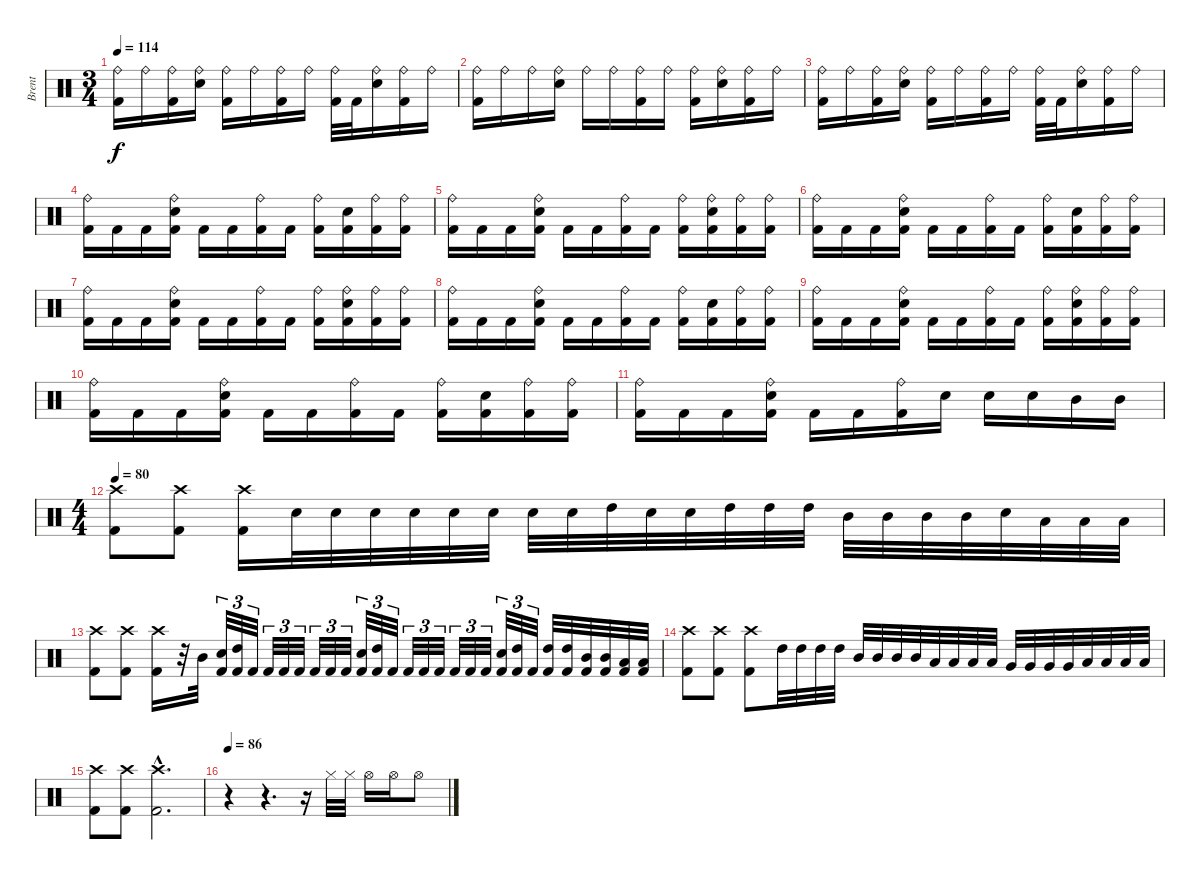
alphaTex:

\track ("Brent" "Brent") {instrument percussion}
\staff {score}
\articulation defaults
\ts (3 4)
\tempo 114
\clef neutral
\ks c
("Ride (bell)" "Kick (hit) 2").16{dy f} "Ride (bell)".16 ("Ride (bell)" "Kick (hit) 2").16 ("Ride (bell)" "Snare (hit) 2").16 ("Ride (bell)" "Kick (hit) 2").16 "Ride (bell)".16 ("Ride (bell)" "Kick (hit) 2").16 "Ride (bell)".16 ("Ride (bell)" "Kick (hit) 2").32 "Kick (hit) 2".32 ("Ride (bell)" "Snare (hit) 2").16 ("Ride (bell)" "Kick (hit) 2").16 "Ride (bell)".16 |
("Ride (bell)" "Kick (hit) 2").16 "Ride (bell)".16 "Ride (bell)".16 ("Ride (bell)" "Snare (hit) 2").16 "Ride (bell)".16 "Ride (bell)".16 ("Ride (bell)" "Kick (hit) 2").16 "Ride (bell)".16 ("Ride (bell)" "Kick (hit) 2").16 ("Ride (bell)" "Snare (hit) 2").16 ("Ride (bell)" "Kick (hit) 2").16 "Ride (bell)".16 |
("Ride (bell)" "Kick (hit) 2").16 "Ride (bell)".16 ("Ride (bell)" "Kick (hit) 2").16 ("Ride (bell)" "Snare (hit) 2").16 ("Ride (bell)" "Kick (hit) 2").16 "Ride (bell)".16 ("Ride (bell)" "Kick (hit) 2").16 "Ride (bell)".16 ("Ride (bell)" "Kick (hit) 2").32 "Kick (hit) 2".32 ("Ride (bell)" "Snare (hit) 2").16 ("Ride (bell)" "Kick (hit) 2").16 "Ride (bell)".16 |
("Ride (bell)" "Kick (hit) 2").16 "Kick (hit) 2".16 "Kick (hit) 2".16 ("Ride (bell)" "Snare (hit) 2" "Kick (hit) 2").16 "Kick (hit) 2".16 "Kick (hit) 2".16 ("Ride (bell)" "Kick (hit) 2").16 "Kick (hit) 2".16 ("Ride (bell)" "Kick (hit) 2").16 ("Snare (hit) 2" "Kick (hit) 2").16 ("Ride (bell)" "Kick (hit) 2").16 ("Ride (bell)" "Kick (hit) 2").16 |
("Ride (bell)" "Kick (hit) 2").16 "Kick (hit) 2".16 "Kick (hit) 2".16 ("Ride (bell)" "Snare (hit) 2" "Kick (hit) 2").16 "Kick (hit) 2".16 "Kick (hit) 2".16 ("Ride (bell)" "Kick (hit) 2").16 "Kick (hit) 2".16 ("Ride (bell)" "Kick (hit) 2").16 ("Ride (bell)" "Snare (hit) 2" "Kick (hit) 2").16 ("Ride (bell)" "Kick (hit) 2").16 ("Ride (bell)" "Kick (hit) 2").16 |
("Ride (bell)" "Kick (hit) 2").16 "Kick (hit) 2".16 "Kick (hit) 2".16 ("Ride (bell)" "Snare (hit) 2" "Kick (hit) 2").16 "Kick (hit) 2".16 "Kick (hit) 2".16 ("Ride (bell)" "Kick (hit) 2").16 "Kick (hit) 2".16 ("Ride (bell)" "Kick (hit) 2").16 ("Snare (hit) 2" "Kick (hit) 2").16 ("Ride (bell)" "Kick (hit) 2").16 ("Ride (bell)" "Kick (hit) 2").16 |
("Ride (bell)" "Kick (hit) 2").16 "Kick (hit) 2".16 "Kick (hit) 2".16 ("Ride (bell)" "Snare (hit) 2" "Kick (hit) 2").16 "Kick (hit) 2".16 "Kick (hit) 2".16 ("Ride (bell)" "Kick (hit) 2").16 "Kick (hit) 2".16 ("Ride (bell)" "Kick (hit) 2").16 ("Ride (bell)" "Snare (hit) 2" "Kick (hit) 2").16 ("Ride (bell)" "Kick (hit) 2").16 ("Ride (bell)" "Kick (hit) 2").16 |
("Ride (bell)" "Kick (hit) 2").16 "Kick (hit) 2".16 "Kick (hit) 2".16 ("Ride (bell)" "Snare (hit) 2" "Kick (hit) 2").16 "Kick (hit) 2".16 "Kick (hit) 2".16 ("Ride (bell)" "Kick (hit) 2").16 "Kick (hit) 2".16 ("Ride (bell)" "Kick (hit) 2").16 ("Snare (hit) 2" "Kick (hit) 2").16 ("Ride (bell)" "Kick (hit) 2").16 ("Ride (bell)" "Kick (hit) 2").16 |
("Ride (bell)" "Kick (hit) 2").16 "Kick (hit) 2".16 "Kick (hit) 2".16 ("Ride (bell)" "Snare (hit) 2" "Kick (hit) 2").16 "Kick (hit) 2".16 "Kick (hit) 2".16 ("Ride (bell)" "Kick (hit) 2").16 "Kick (hit) 2".16 ("Ride (bell)" "Kick (hit) 2").16 ("Ride (bell)" "Snare (hit) 2" "Kick (hit) 2").16 ("Ride (bell)" "Kick (hit) 2").16 ("Ride (bell)" "Kick (hit) 2").16 |
("Ride (bell)" "Kick (hit) 2").16 "Kick (hit) 2".16 "Kick (hit) 2".16 ("Ride (bell)" "Snare (hit) 2" "Kick (hit) 2").16 "Kick (hit) 2".16 "Kick (hit) 2".16 ("Ride (bell)" "Kick (hit) 2").16 "Kick (hit) 2".16 ("Ride (bell)" "Kick (hit) 2").16 ("Snare (hit) 2" "Kick (hit) 2").16 ("Ride (bell)" "Kick (hit) 2").16 ("Ride (bell)" "Kick (hit) 2").16 |
("Ride (bell)" "Kick (hit) 2").16 "Kick (hit) 2".16 "Kick (hit) 2".16 ("Ride (bell)" "Snare (hit) 2" "Kick (hit) 2").16 "Kick (hit) 2".16 "Kick (hit) 2".16 ("Ride (bell)" "Kick (hit) 2").16 "Snare (hit) 2".16 "Snare (hit) 2".16 "Snare (hit) 2".16 "Mid Tom (hit)".16 "Mid Tom (hit)".16 |
\ts (4 4)
\tempo 80
("Crash high (hit)" "Kick (hit) 2").8 ("Crash high (hit)" "Kick (hit) 2").8 ("Crash high (hit)" "Kick (hit) 2").16 "Snare (hit) 2".32 "Snare (hit) 2".32 "Snare (hit) 2".32 "Snare (hit) 2".32 "Snare (hit) 2".32 "Snare (hit) 2".32 "Snare (hit) 2".32 "Snare (hit) 2".32 "High Tom (hit)".32 "Snare (hit) 2".32 "Snare (hit) 2".32 "High Tom (hit)".32 "High Tom (hit)".32 "High Tom (hit)".32 "Mid Tom (hit)".32 "Mid Tom (hit)".32 "Mid Tom (hit)".32 "Mid Tom (hit)".32 "Snare (hit) 2".32 "Low Tom (hit)".32 "Low Tom (hit)".32 "Low Tom (hit)".32 |
("Crash high (hit)" "Kick (hit) 2").8 ("Crash high (hit)" "Kick (hit) 2").8 ("Crash high (hit)" "Kick (hit) 2").16 r.32 "Mid Tom (hit)".32 ("Snare (hit) 2" "Kick (hit) 2").32{tu (3 2)} ("High Tom (hit)" "Kick (hit) 2").32{tu (3 2)} "Kick (hit) 2".32{tu (3 2)} "Kick (hit) 2".32{tu (3 2)} "Kick (hit) 2".32{tu (3 2)} "Kick (hit) 2".32{tu (3 2)} "Kick (hit) 2".32{tu (3 2)} "Kick (hit) 2".32{tu (3 2)} "Kick (hit) 2".32{tu (3 2)} ("Snare (hit) 2" "Kick (hit) 2").32{tu (3 2)} ("High Tom (hit)" "Kick (hit) 2").32{tu (3 2)} "Kick (hit) 2".32{tu (3 2)} "Kick (hit) 2".32{tu (3 2)} "Kick (hit) 2".32{tu (3 2)} "Kick (hit) 2".32{tu (3 2)} "Kick (hit) 2".32{tu (3 2)} "Kick (hit) 2".32{tu (3 2)} "Kick (hit) 2".32{tu (3 2)} ("Snare (hit) 2" "Kick (hit) 2").32{tu (3 2)} ("High Tom (hit)" "Kick (hit) 2").32{tu (3 2)} "Kick (hit) 2".32{tu (3 2)} ("High Tom (hit)" "Kick (hit) 2").32 ("High Tom (hit)" "Kick (hit) 2").32 ("Mid Tom (hit)" "Kick (hit) 2").32 ("Mid Tom (hit)" "Kick (hit) 2").32 ("Low Tom (hit)" "Kick (hit) 2").32 ("Low Tom (hit)" "Kick (hit) 2").32 |
("Crash high (hit)" "Kick (hit) 2").8 ("Crash high (hit)" "Kick (hit) 2").8 ("Crash high (hit)" "Kick (hit) 2").8 "High Tom (hit)".32 "High Tom (hit)".32 "High Tom (hit)".32 "High Tom (hit)".32 "Mid Tom (hit)".32 "Mid Tom (hit)".32 "Mid Tom (hit)".32 "Mid Tom (hit)".32 "Low Tom (hit)".32 "Low Tom (hit)".32 "Low Tom (hit)".32 "Low Tom (hit)".32 "Very Low Tom (hit)".32 "Very Low Tom (hit)".32 "Very Low Tom (hit)".32 "Very Low Tom (hit)".32 "Low Floor Tom (hit)".32 "Low Floor Tom (hit)".32 "Low Floor Tom (hit)".32 "Low Floor Tom (hit)".32 |
("Crash high (hit)" "Kick (hit) 2").8 ("Crash high (hit)" "Kick (hit) 2").8 ("Crash high (hit)"{hac} "Kick (hit) 2"{hac}).2{d} |
\tempo 86
r.4 r.4{d} r.16 "Hi-Hat (closed)".32 "Hi-Hat (closed)".32 "Hi-Hat (open)".16 "Hi-Hat (open)".16 "Hi-Hat (open)".8
